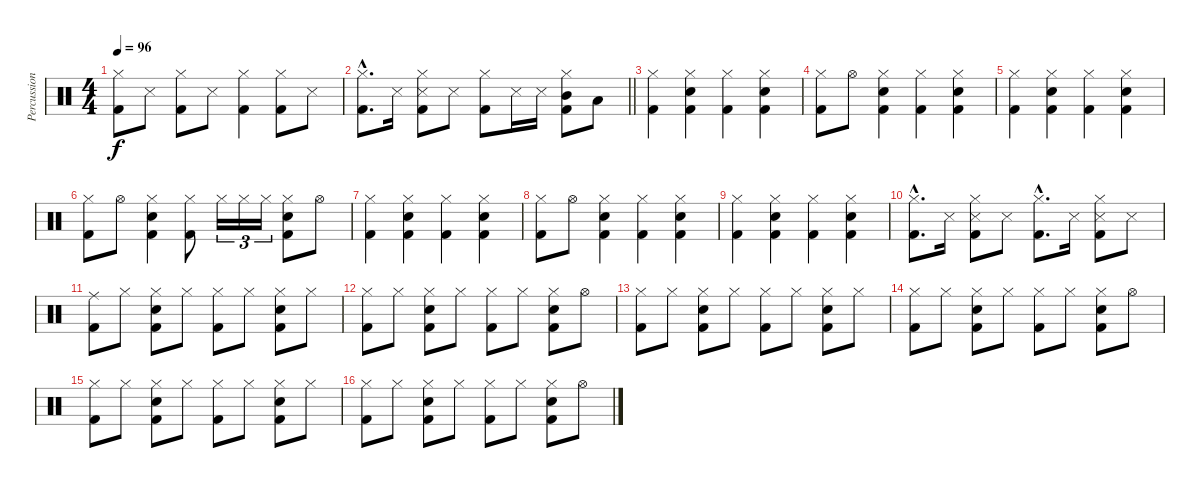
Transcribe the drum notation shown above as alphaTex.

\track ("Percussions" "Percussion") {instrument percussion}
\staff {score}
\articulation defaults
\ts (4 4)
\tempo 96
\clef neutral
\ks c
("Hi-Hat (closed)" "Kick (hit) 2").8{dy f} "Snare (side stick) 3".8 ("Hi-Hat (closed)" "Kick (hit) 2").8 "Snare (side stick) 3".8 ("Hi-Hat (closed)" "Kick (hit) 2").4 ("Hi-Hat (closed)" "Kick (hit) 2").8 "Snare (side stick) 3".8 |
\barLineRight lightlight
("Hi-Hat (closed)"{hac} "Kick (hit) 2"{hac}).8{d} "Snare (side stick) 3".16 ("Hi-Hat (closed)" "Snare (side stick) 3" "Kick (hit) 2").8 "Snare (side stick) 3".8 ("Hi-Hat (closed)" "Kick (hit) 2").8 "Snare (side stick) 3".16 "Snare (side stick) 3".16 ("Hi-Hat (closed)" "Mid Tom (hit)" "Kick (hit) 2").8 "Low Floor Tom (hit)".8 |
("Hi-Hat (closed)" "Kick (hit) 2").4 ("Hi-Hat (closed)" "Snare (hit) 2" "Kick (hit) 2").4 ("Hi-Hat (closed)" "Kick (hit) 2").4 ("Hi-Hat (closed)" "Snare (hit) 2" "Kick (hit) 2").4 |
("Hi-Hat (closed)" "Kick (hit) 2").8 "Hi-Hat (open)".8 ("Hi-Hat (closed)" "Snare (hit) 2" "Kick (hit) 2").4 ("Hi-Hat (closed)" "Kick (hit) 2").4 ("Hi-Hat (closed)" "Snare (hit) 2" "Kick (hit) 2").4 |
("Hi-Hat (closed)" "Kick (hit) 2").4 ("Hi-Hat (closed)" "Snare (hit) 2" "Kick (hit) 2").4 ("Hi-Hat (closed)" "Kick (hit) 2").4 ("Hi-Hat (closed)" "Snare (hit) 2" "Kick (hit) 2").4 |
("Hi-Hat (closed)" "Kick (hit) 2").8 "Hi-Hat (open)".8 ("Hi-Hat (closed)" "Snare (hit) 2" "Kick (hit) 2").4 ("Hi-Hat (closed)" "Kick (hit) 2").8 "Hi-Hat (closed)".16{tu (3 2)} "Hi-Hat (closed)".16{tu (3 2)} "Hi-Hat (closed)".16{tu (3 2)} ("Hi-Hat (closed)" "Snare (hit) 2" "Kick (hit) 2").8 "Hi-Hat (open)".8 |
("Hi-Hat (closed)" "Kick (hit) 2").4 ("Hi-Hat (closed)" "Snare (hit) 2" "Kick (hit) 2").4 ("Hi-Hat (closed)" "Kick (hit) 2").4 ("Hi-Hat (closed)" "Snare (hit) 2" "Kick (hit) 2").4 |
("Hi-Hat (closed)" "Kick (hit) 2").8 "Hi-Hat (open)".8 ("Hi-Hat (closed)" "Snare (hit) 2" "Kick (hit) 2").4 ("Hi-Hat (closed)" "Kick (hit) 2").4 ("Hi-Hat (closed)" "Snare (hit) 2" "Kick (hit) 2").4 |
("Hi-Hat (closed)" "Kick (hit) 2").4 ("Hi-Hat (closed)" "Snare (hit) 2" "Kick (hit) 2").4 ("Hi-Hat (closed)" "Kick (hit) 2").4 ("Hi-Hat (closed)" "Snare (hit) 2" "Kick (hit) 2").4 |
("Hi-Hat (closed)"{hac} "Kick (hit) 2"{hac}).8{d} "Snare (side stick) 3".16 ("Hi-Hat (closed)" "Snare (side stick) 3" "Kick (hit) 2").8 "Snare (side stick) 3".8 ("Hi-Hat (closed)"{hac} "Kick (hit) 2"{hac}).8{d} "Snare (side stick) 3".16 ("Hi-Hat (closed)" "Snare (side stick) 3" "Kick (hit) 2").8 "Snare (side stick) 3".8 |
("Ride (middle)" "Kick (hit) 2").8 "Hi-Hat (closed)".8 ("Hi-Hat (closed)" "Snare (hit) 2" "Kick (hit) 2").8 "Hi-Hat (closed)".8 ("Hi-Hat (closed)" "Kick (hit) 2").8 "Hi-Hat (closed)".8 ("Hi-Hat (closed)" "Snare (hit) 2" "Kick (hit) 2").8 "Hi-Hat (closed)".8 |
("Hi-Hat (closed)" "Kick (hit) 2").8 "Hi-Hat (closed)".8 ("Hi-Hat (closed)" "Snare (hit) 2" "Kick (hit) 2").8 "Hi-Hat (closed)".8 ("Hi-Hat (closed)" "Kick (hit) 2").8 "Hi-Hat (closed)".8 ("Hi-Hat (closed)" "Snare (hit) 2" "Kick (hit) 2").8 "Hi-Hat (open)".8 |
("Hi-Hat (closed)" "Kick (hit) 2").8 "Hi-Hat (closed)".8 ("Hi-Hat (closed)" "Snare (hit) 2" "Kick (hit) 2").8 "Hi-Hat (closed)".8 ("Hi-Hat (closed)" "Kick (hit) 2").8 "Hi-Hat (closed)".8 ("Hi-Hat (closed)" "Snare (hit) 2" "Kick (hit) 2").8 "Hi-Hat (closed)".8 |
("Hi-Hat (closed)" "Kick (hit) 2").8 "Hi-Hat (closed)".8 ("Hi-Hat (closed)" "Snare (hit) 2" "Kick (hit) 2").8 "Hi-Hat (closed)".8 ("Hi-Hat (closed)" "Kick (hit) 2").8 "Hi-Hat (closed)".8 ("Hi-Hat (closed)" "Snare (hit) 2" "Kick (hit) 2").8 "Hi-Hat (open)".8 |
("Hi-Hat (closed)" "Kick (hit) 2").8 "Hi-Hat (closed)".8 ("Hi-Hat (closed)" "Snare (hit) 2" "Kick (hit) 2").8 "Hi-Hat (closed)".8 ("Hi-Hat (closed)" "Kick (hit) 2").8 "Hi-Hat (closed)".8 ("Hi-Hat (closed)" "Snare (hit) 2" "Kick (hit) 2").8 "Hi-Hat (closed)".8 |
("Hi-Hat (closed)" "Kick (hit) 2").8 "Hi-Hat (closed)".8 ("Hi-Hat (closed)" "Snare (hit) 2" "Kick (hit) 2").8 "Hi-Hat (closed)".8 ("Hi-Hat (closed)" "Kick (hit) 2").8 "Hi-Hat (closed)".8 ("Hi-Hat (closed)" "Snare (hit) 2" "Kick (hit) 2").8 "Hi-Hat (open)".8
